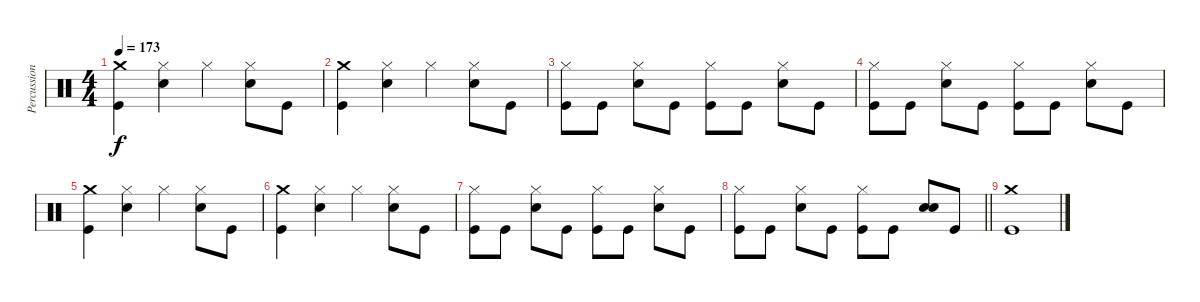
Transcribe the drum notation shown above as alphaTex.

\track ("Percussion" "Percussion") {instrument percussion}
\staff {score}
\articulation defaults
\ts (4 4)
\tempo 173
\clef neutral
\ks c
("Crash medium (hit)" "Kick (hit)").4{dy f} ("Hi-Hat (closed)" "Electric Snare (hit)").4 "Hi-Hat (closed)".4 ("Hi-Hat (closed)" "Electric Snare (hit)").8 "Kick (hit)".8 |
("Crash medium (hit)" "Kick (hit)").4 ("Hi-Hat (closed)" "Electric Snare (hit)").4 "Hi-Hat (closed)".4 ("Hi-Hat (closed)" "Electric Snare (hit)").8 "Kick (hit)".8 |
("Hi-Hat (closed)" "Kick (hit)").8 "Kick (hit)".8 ("Hi-Hat (closed)" "Electric Snare (hit)").8 "Kick (hit)".8 ("Hi-Hat (closed)" "Kick (hit)").8 "Kick (hit)".8 ("Hi-Hat (closed)" "Electric Snare (hit)").8 "Kick (hit)".8 |
("Hi-Hat (closed)" "Kick (hit)").8 "Kick (hit)".8 ("Hi-Hat (closed)" "Electric Snare (hit)").8 "Kick (hit)".8 ("Hi-Hat (closed)" "Kick (hit)").8 "Kick (hit)".8 ("Hi-Hat (closed)" "Electric Snare (hit)").8 "Kick (hit)".8 |
("Crash medium (hit)" "Kick (hit)").4 ("Hi-Hat (closed)" "Electric Snare (hit)").4 "Hi-Hat (closed)".4 ("Hi-Hat (closed)" "Electric Snare (hit)").8 "Kick (hit)".8 |
("Crash medium (hit)" "Kick (hit)").4 ("Hi-Hat (closed)" "Electric Snare (hit)").4 "Hi-Hat (closed)".4 ("Hi-Hat (closed)" "Electric Snare (hit)").8 "Kick (hit)".8 |
("Hi-Hat (closed)" "Kick (hit)").8 "Kick (hit)".8 ("Hi-Hat (closed)" "Electric Snare (hit)").8 "Kick (hit)".8 ("Hi-Hat (closed)" "Kick (hit)").8 "Kick (hit)".8 ("Hi-Hat (closed)" "Electric Snare (hit)").8 "Kick (hit)".8 |
\barLineRight lightlight
("Hi-Hat (closed)" "Kick (hit)").8 "Kick (hit)".8 ("Hi-Hat (closed)" "Electric Snare (hit)").8 "Kick (hit)".8 ("Hi-Hat (closed)" "Kick (hit)").8 "Kick (hit)".8 ("Electric Snare (hit)" "Electric Snare (hit)").8 "Kick (hit)".8 |
("Crash medium (hit)" "Kick (hit)").1
